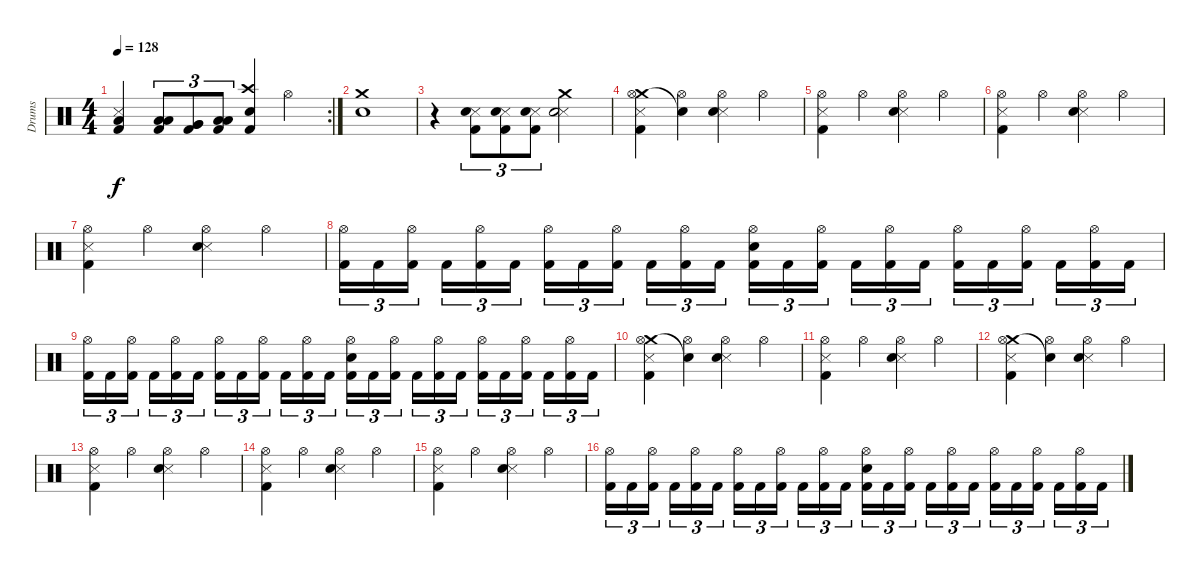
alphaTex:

\track ("Drums" "Drums") {instrument percussion}
\staff {score}
\articulation defaults
\rc 2
\ts (4 4)
\tempo 128
\clef neutral
\ks c
("Snare (side stick) 3" "Low Floor Tom (hit)" "Kick (hit) 2").4{dy f} ("Low Tom (hit)" "Low Tom (hit)" "Kick (hit) 2").8{tu (3 2)} ("Very Low Tom (hit)" "Very Low Tom (hit)" "Kick (hit) 2").8{tu (3 2)} ("Low Floor Tom (hit)" "Low Floor Tom (hit)" "Kick (hit) 2").8{tu (3 2)} ("Crash high (hit)" "Electric Snare (hit)" "Kick (hit) 2").4 "Hi-Hat (open)".4 |
("Crash medium (hit)" "Electric Snare (hit)").1 |
r.4 ("Snare (side stick) 3" "Electric Snare (hit)" "Kick (hit) 2").8{tu (3 2)} ("Snare (side stick) 3" "Electric Snare (hit)" "Kick (hit) 2").8{tu (3 2)} ("Snare (side stick) 3" "Electric Snare (hit)" "Kick (hit) 2").8{tu (3 2)} ("Crash medium (hit)" "Snare (side stick) 3" "Electric Snare (hit)").2 |
("Crash medium (hit)" "Snare (side stick) 3" "Hi-Hat (open)" "Kick (hit) 2").4 ("Snare (hit)"{t} "Hi-Hat (open)").4 ("Snare (side stick) 3" "Hi-Hat (open)" "Electric Snare (hit)").4 "Hi-Hat (open)".4 |
("Snare (side stick) 3" "Hi-Hat (open)" "Kick (hit) 2").4 "Hi-Hat (open)".4 ("Snare (side stick) 3" "Hi-Hat (open)" "Electric Snare (hit)").4 "Hi-Hat (open)".4 |
("Snare (side stick) 3" "Hi-Hat (open)" "Kick (hit) 2").4 "Hi-Hat (open)".4 ("Snare (side stick) 3" "Hi-Hat (open)" "Electric Snare (hit)").4 "Hi-Hat (open)".4 |
("Snare (side stick) 3" "Hi-Hat (open)" "Kick (hit) 2").4 "Hi-Hat (open)".4 ("Snare (side stick) 3" "Hi-Hat (open)" "Electric Snare (hit)").4 "Hi-Hat (open)".4 |
("Hi-Hat (open)" "Kick (hit) 2").16{tu (3 2)} "Kick (hit) 2".16{tu (3 2)} ("Hi-Hat (open)" "Kick (hit) 2").16{tu (3 2) beam splitsecondary} "Kick (hit) 2".16{tu (3 2)} ("Hi-Hat (open)" "Kick (hit) 2").16{tu (3 2)} "Kick (hit) 2".16{tu (3 2)} ("Hi-Hat (open)" "Kick (hit) 2").16{tu (3 2)} "Kick (hit) 2".16{tu (3 2)} ("Hi-Hat (open)" "Kick (hit) 2").16{tu (3 2) beam splitsecondary} "Kick (hit) 2".16{tu (3 2)} ("Hi-Hat (open)" "Kick (hit) 2").16{tu (3 2)} "Kick (hit) 2".16{tu (3 2)} ("Hi-Hat (open)" "Electric Snare (hit)" "Kick (hit) 2").16{tu (3 2)} "Kick (hit) 2".16{tu (3 2)} ("Hi-Hat (open)" "Kick (hit) 2").16{tu (3 2) beam splitsecondary} "Kick (hit) 2".16{tu (3 2)} ("Hi-Hat (open)" "Kick (hit) 2").16{tu (3 2)} "Kick (hit) 2".16{tu (3 2)} ("Hi-Hat (open)" "Kick (hit) 2").16{tu (3 2)} "Kick (hit) 2".16{tu (3 2)} ("Hi-Hat (open)" "Kick (hit) 2").16{tu (3 2) beam splitsecondary} "Kick (hit) 2".16{tu (3 2)} ("Hi-Hat (open)" "Kick (hit) 2").16{tu (3 2)} "Kick (hit) 2".16{tu (3 2)} |
("Hi-Hat (open)" "Kick (hit) 2").16{tu (3 2)} "Kick (hit) 2".16{tu (3 2)} ("Hi-Hat (open)" "Kick (hit) 2").16{tu (3 2) beam splitsecondary} "Kick (hit) 2".16{tu (3 2)} ("Hi-Hat (open)" "Kick (hit) 2").16{tu (3 2)} "Kick (hit) 2".16{tu (3 2)} ("Hi-Hat (open)" "Kick (hit) 2").16{tu (3 2)} "Kick (hit) 2".16{tu (3 2)} ("Hi-Hat (open)" "Kick (hit) 2").16{tu (3 2) beam splitsecondary} "Kick (hit) 2".16{tu (3 2)} ("Hi-Hat (open)" "Kick (hit) 2").16{tu (3 2)} "Kick (hit) 2".16{tu (3 2)} ("Hi-Hat (open)" "Electric Snare (hit)" "Kick (hit) 2").16{tu (3 2)} "Kick (hit) 2".16{tu (3 2)} ("Hi-Hat (open)" "Kick (hit) 2").16{tu (3 2) beam splitsecondary} "Kick (hit) 2".16{tu (3 2)} ("Hi-Hat (open)" "Kick (hit) 2").16{tu (3 2)} "Kick (hit) 2".16{tu (3 2)} ("Hi-Hat (open)" "Kick (hit) 2").16{tu (3 2)} "Kick (hit) 2".16{tu (3 2)} ("Hi-Hat (open)" "Kick (hit) 2").16{tu (3 2) beam splitsecondary} "Kick (hit) 2".16{tu (3 2)} ("Hi-Hat (open)" "Kick (hit) 2").16{tu (3 2)} "Kick (hit) 2".16{tu (3 2)} |
("Crash medium (hit)" "Snare (side stick) 3" "Hi-Hat (open)" "Kick (hit) 2").4 ("Snare (hit)"{t} "Hi-Hat (open)").4 ("Snare (side stick) 3" "Hi-Hat (open)" "Electric Snare (hit)").4 "Hi-Hat (open)".4 |
("Snare (side stick) 3" "Hi-Hat (open)" "Kick (hit) 2").4 "Hi-Hat (open)".4 ("Snare (side stick) 3" "Hi-Hat (open)" "Electric Snare (hit)").4 "Hi-Hat (open)".4 |
("Crash medium (hit)" "Snare (side stick) 3" "Hi-Hat (open)" "Kick (hit) 2").4 ("Snare (hit)"{t} "Hi-Hat (open)").4 ("Snare (side stick) 3" "Hi-Hat (open)" "Electric Snare (hit)").4 "Hi-Hat (open)".4 |
("Snare (side stick) 3" "Hi-Hat (open)" "Kick (hit) 2").4 "Hi-Hat (open)".4 ("Snare (side stick) 3" "Hi-Hat (open)" "Electric Snare (hit)").4 "Hi-Hat (open)".4 |
("Snare (side stick) 3" "Hi-Hat (open)" "Kick (hit) 2").4 "Hi-Hat (open)".4 ("Snare (side stick) 3" "Hi-Hat (open)" "Electric Snare (hit)").4 "Hi-Hat (open)".4 |
("Snare (side stick) 3" "Hi-Hat (open)" "Kick (hit) 2").4 "Hi-Hat (open)".4 ("Snare (side stick) 3" "Hi-Hat (open)" "Electric Snare (hit)").4 "Hi-Hat (open)".4 |
("Hi-Hat (open)" "Kick (hit) 2").16{tu (3 2)} "Kick (hit) 2".16{tu (3 2)} ("Hi-Hat (open)" "Kick (hit) 2").16{tu (3 2) beam splitsecondary} "Kick (hit) 2".16{tu (3 2)} ("Hi-Hat (open)" "Kick (hit) 2").16{tu (3 2)} "Kick (hit) 2".16{tu (3 2)} ("Hi-Hat (open)" "Kick (hit) 2").16{tu (3 2)} "Kick (hit) 2".16{tu (3 2)} ("Hi-Hat (open)" "Kick (hit) 2").16{tu (3 2) beam splitsecondary} "Kick (hit) 2".16{tu (3 2)} ("Hi-Hat (open)" "Kick (hit) 2").16{tu (3 2)} "Kick (hit) 2".16{tu (3 2)} ("Hi-Hat (open)" "Electric Snare (hit)" "Kick (hit) 2").16{tu (3 2)} "Kick (hit) 2".16{tu (3 2)} ("Hi-Hat (open)" "Kick (hit) 2").16{tu (3 2) beam splitsecondary} "Kick (hit) 2".16{tu (3 2)} ("Hi-Hat (open)" "Kick (hit) 2").16{tu (3 2)} "Kick (hit) 2".16{tu (3 2)} ("Hi-Hat (open)" "Kick (hit) 2").16{tu (3 2)} "Kick (hit) 2".16{tu (3 2)} ("Hi-Hat (open)" "Kick (hit) 2").16{tu (3 2) beam splitsecondary} "Kick (hit) 2".16{tu (3 2)} ("Hi-Hat (open)" "Kick (hit) 2").16{tu (3 2)} "Kick (hit) 2".16{tu (3 2)}
